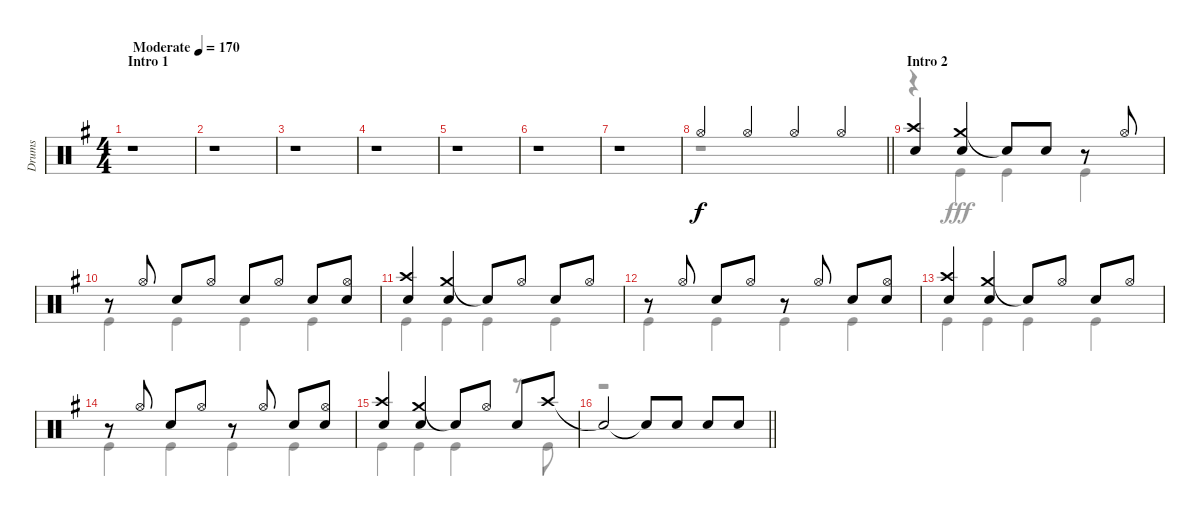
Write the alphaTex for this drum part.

\track ("Drums" "Drums") {instrument percussion}
\staff {score}
\articulation defaults
\voice
\ts (4 4)
\section ("" "Intro 1")
\tempo (170 "Moderate")
\clef neutral
\ks g
r.1{dy f} |
r.1 |
r.1 |
r.1 |
r.1 |
r.1 |
r.1 |
\barLineRight lightlight "Hi-Hat (open)".4 "Hi-Hat (open)".4 "Hi-Hat (open)".4 "Hi-Hat (open)".4
|
\section ("" "Intro 2")
("Crash high (hit)" "Snare (hit) 2").4 ("Crash medium (hit)" "Snare (hit) 2").4 "Snare (hit)"{t}.8 "Snare (hit) 2".8 r.8 "Hi-Hat (open)".8 |
r.8 "Hi-Hat (open)".8 "Snare (hit) 2".8 "Hi-Hat (open)".8 "Snare (hit) 2".8 "Hi-Hat (open)".8 "Snare (hit) 2".8 ("Hi-Hat (open)" "Snare (hit) 2").8 |
("Crash high (hit)" "Snare (hit) 2").4 ("Crash medium (hit)" "Snare (hit) 2").4 "Snare (hit)"{t}.8 "Hi-Hat (open)".8 "Snare (hit) 2".8 "Hi-Hat (open)".8 |
r.8 "Hi-Hat (open)".8 "Snare (hit) 2".8 "Hi-Hat (open)".8 r.8 "Hi-Hat (open)".8 "Snare (hit) 2".8 ("Hi-Hat (open)" "Snare (hit) 2").8 |
("Crash high (hit)" "Snare (hit) 2").4 ("Crash medium (hit)" "Snare (hit) 2").4 "Snare (hit)"{t}.8 "Hi-Hat (open)".8 "Snare (hit) 2".8 "Hi-Hat (open)".8 |
r.8 "Hi-Hat (open)".8 "Snare (hit) 2".8 "Hi-Hat (open)".8 r.8 "Hi-Hat (open)".8 "Snare (hit) 2".8 ("Hi-Hat (open)" "Snare (hit) 2").8 |
("Crash high (hit)" "Snare (hit) 2").4 ("Crash medium (hit)" "Snare (hit) 2").4 "Snare (hit)"{t}.8 "Hi-Hat (open)".8 "Snare (hit) 2".8 "Crash high (hit)".8 |
\barLineRight lightlight "Snare (hit)"{t}.2 "Snare (hit)"{t}.8 "Snare (hit) 2".8 "Snare (hit) 2".8 "Snare (hit) 2".8
\voice
\clef neutral
\ottava regular
\simile none
\ks g
r.1{dy fff} |
r.1 |
r.1 |
r.1 |
r.1 |
r.1 |
r.1 |
\barLineRight lightlight
r.1 |
r.4 "Kick (hit)".4 "Kick (hit)".4 "Kick (hit)".4 |
"Kick (hit)".4 "Kick (hit)".4 "Kick (hit)".4 "Kick (hit)".4 |
"Kick (hit)".4 "Kick (hit)".4 "Kick (hit)".4 "Kick (hit)".4 |
"Kick (hit)".4 "Kick (hit)".4 "Kick (hit)".4 "Kick (hit)".4 |
"Kick (hit)".4 "Kick (hit)".4 "Kick (hit)".4 "Kick (hit)".4 |
"Kick (hit)".4 "Kick (hit)".4 "Kick (hit)".4 "Kick (hit)".4 |
"Kick (hit)".4 "Kick (hit)".4 "Kick (hit)".4 r.8 "Kick (hit)".8 |
\barLineRight lightlight
r.1
